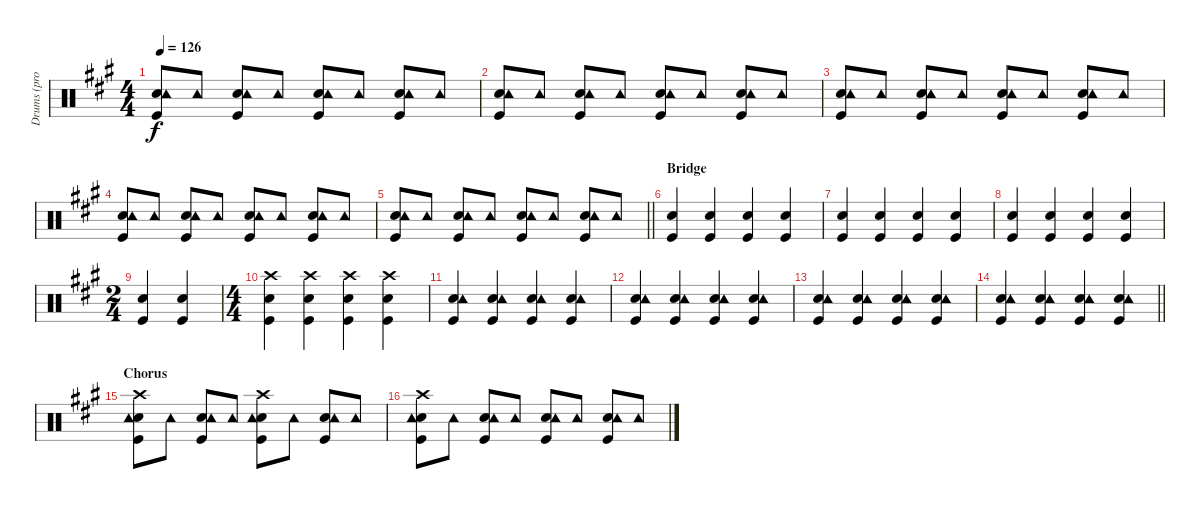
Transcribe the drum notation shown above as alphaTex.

\track ("Drums (prov.)" "Drums (pro") {instrument percussion}
\staff {score}
\articulation defaults
\ts (4 4)
\tempo 126
\clef neutral
\ks a
("Snare (hit) 2" "Tambourine (hit)" "Kick (hit)").8{dy f} "Tambourine (hit)".8 ("Snare (hit) 2" "Tambourine (hit)" "Kick (hit)").8 "Tambourine (hit)".8 ("Snare (hit) 2" "Tambourine (hit)" "Kick (hit)").8 "Tambourine (hit)".8 ("Snare (hit) 2" "Tambourine (hit)" "Kick (hit)").8 "Tambourine (hit)".8 |
("Snare (hit) 2" "Tambourine (hit)" "Kick (hit)").8 "Tambourine (hit)".8 ("Snare (hit) 2" "Tambourine (hit)" "Kick (hit)").8 "Tambourine (hit)".8 ("Snare (hit) 2" "Tambourine (hit)" "Kick (hit)").8 "Tambourine (hit)".8 ("Snare (hit) 2" "Tambourine (hit)" "Kick (hit)").8 "Tambourine (hit)".8 |
("Snare (hit) 2" "Tambourine (hit)" "Kick (hit)").8 "Tambourine (hit)".8 ("Snare (hit) 2" "Tambourine (hit)" "Kick (hit)").8 "Tambourine (hit)".8 ("Snare (hit) 2" "Tambourine (hit)" "Kick (hit)").8 "Tambourine (hit)".8 ("Snare (hit) 2" "Tambourine (hit)" "Kick (hit)").8 "Tambourine (hit)".8 |
("Snare (hit) 2" "Tambourine (hit)" "Kick (hit)").8 "Tambourine (hit)".8 ("Snare (hit) 2" "Tambourine (hit)" "Kick (hit)").8 "Tambourine (hit)".8 ("Snare (hit) 2" "Tambourine (hit)" "Kick (hit)").8 "Tambourine (hit)".8 ("Snare (hit) 2" "Tambourine (hit)" "Kick (hit)").8 "Tambourine (hit)".8 |
\barLineRight lightlight
("Snare (hit) 2" "Tambourine (hit)" "Kick (hit)").8 "Tambourine (hit)".8 ("Snare (hit) 2" "Tambourine (hit)" "Kick (hit)").8 "Tambourine (hit)".8 ("Snare (hit) 2" "Tambourine (hit)" "Kick (hit)").8 "Tambourine (hit)".8 ("Snare (hit) 2" "Tambourine (hit)" "Kick (hit)").8 "Tambourine (hit)".8 |
\section ("" "Bridge")
("Snare (hit) 2" "Kick (hit)").4 ("Snare (hit) 2" "Kick (hit)").4 ("Snare (hit) 2" "Kick (hit)").4 ("Snare (hit) 2" "Kick (hit)").4 |
("Snare (hit) 2" "Kick (hit)").4 ("Snare (hit) 2" "Kick (hit)").4 ("Snare (hit) 2" "Kick (hit)").4 ("Snare (hit) 2" "Kick (hit)").4 |
("Snare (hit) 2" "Kick (hit)").4 ("Snare (hit) 2" "Kick (hit)").4 ("Snare (hit) 2" "Kick (hit)").4 ("Snare (hit) 2" "Kick (hit)").4 |
\ts (2 4)
("Snare (hit) 2" "Kick (hit)").4 ("Snare (hit) 2" "Kick (hit)").4 |
\ts (4 4)
("Crash high (hit)" "Snare (hit) 2" "Kick (hit)").4 ("Crash high (hit)" "Snare (hit) 2" "Kick (hit)").4 ("Crash high (hit)" "Snare (hit) 2" "Kick (hit)").4 ("Crash high (hit)" "Snare (hit) 2" "Kick (hit)").4 |
("Snare (hit) 2" "Tambourine (hit)" "Kick (hit)").4 ("Snare (hit) 2" "Tambourine (hit)" "Kick (hit)").4 ("Snare (hit) 2" "Tambourine (hit)" "Kick (hit)").4 ("Snare (hit) 2" "Tambourine (hit)" "Kick (hit)").4 |
("Snare (hit) 2" "Tambourine (hit)" "Kick (hit)").4 ("Snare (hit) 2" "Tambourine (hit)" "Kick (hit)").4 ("Snare (hit) 2" "Tambourine (hit)" "Kick (hit)").4 ("Snare (hit) 2" "Tambourine (hit)" "Kick (hit)").4 |
("Snare (hit) 2" "Tambourine (hit)" "Kick (hit)").4 ("Snare (hit) 2" "Tambourine (hit)" "Kick (hit)").4 ("Snare (hit) 2" "Tambourine (hit)" "Kick (hit)").4 ("Snare (hit) 2" "Tambourine (hit)" "Kick (hit)").4 |
\barLineRight lightlight
("Snare (hit) 2" "Tambourine (hit)" "Kick (hit)").4 ("Snare (hit) 2" "Tambourine (hit)" "Kick (hit)").4 ("Snare (hit) 2" "Tambourine (hit)" "Kick (hit)").4 ("Snare (hit) 2" "Tambourine (hit)" "Kick (hit)").4 |
\section ("" "Chorus")
("Crash high (hit)" "Snare (hit) 2" "Tambourine (hit)" "Kick (hit)").8 "Tambourine (hit)".8 ("Snare (hit) 2" "Tambourine (hit)" "Kick (hit)").8 "Tambourine (hit)".8 ("Crash high (hit)" "Snare (hit) 2" "Tambourine (hit)" "Kick (hit)").8 "Tambourine (hit)".8 ("Snare (hit) 2" "Tambourine (hit)" "Kick (hit)").8 "Tambourine (hit)".8 |
("Crash high (hit)" "Snare (hit) 2" "Tambourine (hit)" "Kick (hit)").8 "Tambourine (hit)".8 ("Snare (hit) 2" "Tambourine (hit)" "Kick (hit)").8 "Tambourine (hit)".8 ("Snare (hit) 2" "Tambourine (hit)" "Kick (hit)").8 "Tambourine (hit)".8 ("Snare (hit) 2" "Tambourine (hit)" "Kick (hit)").8 "Tambourine (hit)".8
